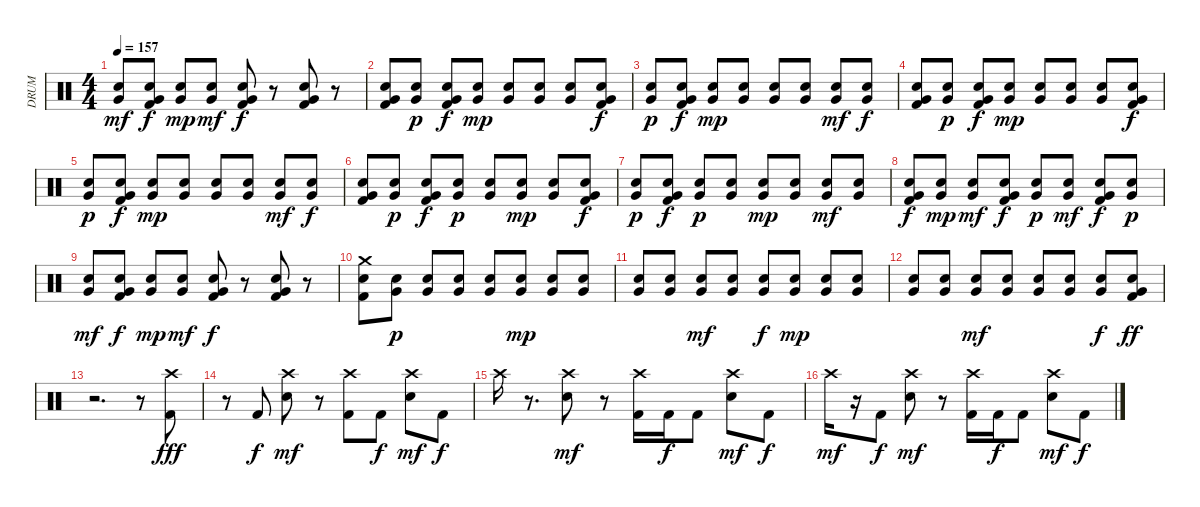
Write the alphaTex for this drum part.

\track ("DRUM" "DRUM") {instrument percussion}
\staff {score}
\articulation defaults
\ts (4 4)
\tempo 157
\clef neutral
\ks c
("Snare (hit) 2" "Very Low Tom (hit)").8{dy mf} ("Kick (hit) 2" "Snare (hit) 2" "Very Low Tom (hit)").8{dy f} ("Snare (hit) 2" "Very Low Tom (hit)").8{dy mp} ("Snare (hit) 2" "Very Low Tom (hit)").8{dy mf} ("Kick (hit) 2" "Snare (hit) 2" "Very Low Tom (hit)").8{dy f} r.8 ("Kick (hit) 2" "Snare (hit) 2" "Very Low Tom (hit)").8 r.8 |
("Snare (hit) 2" "Kick (hit) 2" "Very Low Tom (hit)").8 ("Snare (hit) 2" "Very Low Tom (hit)").8{dy p} ("Kick (hit) 2" "Snare (hit) 2" "Very Low Tom (hit)").8{dy f} ("Snare (hit) 2" "Very Low Tom (hit)").8{dy mp} ("Very Low Tom (hit)" "Snare (hit) 2").8 ("Very Low Tom (hit)" "Snare (hit) 2").8 ("Snare (hit) 2" "Very Low Tom (hit)").8 ("Very Low Tom (hit)" "Kick (hit) 2" "Snare (hit) 2").8{dy f} |
("Snare (hit) 2" "Very Low Tom (hit)").8{dy p} ("Very Low Tom (hit)" "Kick (hit) 2" "Snare (hit) 2").8{dy f} ("Snare (hit) 2" "Very Low Tom (hit)").8{dy mp} ("Very Low Tom (hit)" "Snare (hit) 2").8 ("Snare (hit) 2" "Very Low Tom (hit)").8 ("Very Low Tom (hit)" "Snare (hit) 2").8 ("Snare (hit) 2" "Very Low Tom (hit)").8{dy mf} ("Snare (hit) 2" "Very Low Tom (hit)").8{dy f} |
("Snare (hit) 2" "Kick (hit) 2" "Very Low Tom (hit)").8 ("Snare (hit) 2" "Very Low Tom (hit)").8{dy p} ("Kick (hit) 2" "Snare (hit) 2" "Very Low Tom (hit)").8{dy f} ("Snare (hit) 2" "Very Low Tom (hit)").8{dy mp} ("Very Low Tom (hit)" "Snare (hit) 2").8 ("Very Low Tom (hit)" "Snare (hit) 2").8 ("Snare (hit) 2" "Very Low Tom (hit)").8 ("Very Low Tom (hit)" "Kick (hit) 2" "Snare (hit) 2").8{dy f} |
("Snare (hit) 2" "Very Low Tom (hit)").8{dy p} ("Very Low Tom (hit)" "Kick (hit) 2" "Snare (hit) 2").8{dy f} ("Snare (hit) 2" "Very Low Tom (hit)").8{dy mp} ("Very Low Tom (hit)" "Snare (hit) 2").8 ("Snare (hit) 2" "Very Low Tom (hit)").8 ("Very Low Tom (hit)" "Snare (hit) 2").8 ("Snare (hit) 2" "Very Low Tom (hit)").8{dy mf} ("Snare (hit) 2" "Very Low Tom (hit)").8{dy f} |
("Snare (hit) 2" "Kick (hit) 2" "Very Low Tom (hit)").8 ("Snare (hit) 2" "Very Low Tom (hit)").8{dy p} ("Kick (hit) 2" "Snare (hit) 2" "Very Low Tom (hit)").8{dy f} ("Snare (hit) 2" "Very Low Tom (hit)").8{dy p} ("Very Low Tom (hit)" "Snare (hit) 2").8 ("Very Low Tom (hit)" "Snare (hit) 2").8{dy mp} ("Snare (hit) 2" "Very Low Tom (hit)").8 ("Very Low Tom (hit)" "Kick (hit) 2" "Snare (hit) 2").8{dy f} |
("Snare (hit) 2" "Very Low Tom (hit)").8{dy p} ("Very Low Tom (hit)" "Kick (hit) 2" "Snare (hit) 2").8{dy f} ("Snare (hit) 2" "Very Low Tom (hit)").8{dy p} ("Very Low Tom (hit)" "Snare (hit) 2").8 ("Snare (hit) 2" "Very Low Tom (hit)").8{dy mp} ("Very Low Tom (hit)" "Snare (hit) 2").8 ("Snare (hit) 2" "Very Low Tom (hit)").8{dy mf} ("Snare (hit) 2" "Very Low Tom (hit)").8 |
("Snare (hit) 2" "Kick (hit) 2" "Very Low Tom (hit)").8{dy f} ("Snare (hit) 2" "Very Low Tom (hit)").8{dy mp} ("Snare (hit) 2" "Very Low Tom (hit)").8{dy mf} ("Kick (hit) 2" "Snare (hit) 2" "Very Low Tom (hit)").8{dy f} ("Very Low Tom (hit)" "Snare (hit) 2").8{dy p} ("Snare (hit) 2" "Very Low Tom (hit)").8{dy mf} ("Kick (hit) 2" "Snare (hit) 2" "Very Low Tom (hit)").8{dy f} ("Very Low Tom (hit)" "Snare (hit) 2").8{dy p} |
("Snare (hit) 2" "Very Low Tom (hit)").8{dy mf} ("Kick (hit) 2" "Snare (hit) 2" "Very Low Tom (hit)").8{dy f} ("Snare (hit) 2" "Very Low Tom (hit)").8{dy mp} ("Snare (hit) 2" "Very Low Tom (hit)").8{dy mf} ("Kick (hit) 2" "Snare (hit) 2" "Very Low Tom (hit)").8{dy f} r.8 ("Kick (hit) 2" "Snare (hit) 2" "Very Low Tom (hit)").8 r.8 |
("Crash medium (hit)" "Kick (hit) 2" "Snare (hit) 2").8 ("Snare (hit) 2" "Very Low Tom (hit)").8{dy p} ("Very Low Tom (hit)" "Snare (hit) 2").8 ("Snare (hit) 2" "Very Low Tom (hit)").8 ("Snare (hit) 2" "Very Low Tom (hit)").8 ("Very Low Tom (hit)" "Snare (hit) 2").8{dy mp} ("Snare (hit) 2" "Very Low Tom (hit)").8 ("Snare (hit) 2" "Very Low Tom (hit)").8 |
("Snare (hit) 2" "Very Low Tom (hit)").8 ("Very Low Tom (hit)" "Snare (hit) 2").8 ("Very Low Tom (hit)" "Snare (hit) 2").8{dy mf} ("Snare (hit) 2" "Very Low Tom (hit)").8 ("Snare (hit) 2" "Very Low Tom (hit)").8{dy f} ("Snare (hit) 2" "Very Low Tom (hit)").8{dy mp} ("Snare (hit) 2" "Very Low Tom (hit)").8 ("Snare (hit) 2" "Very Low Tom (hit)").8 |
("Very Low Tom (hit)" "Snare (hit) 2").8 ("Very Low Tom (hit)" "Snare (hit) 2").8 ("Snare (hit) 2" "Very Low Tom (hit)").8{dy mf} ("Very Low Tom (hit)" "Snare (hit) 2").8 ("Snare (hit) 2" "Very Low Tom (hit)").8 ("Very Low Tom (hit)" "Snare (hit) 2").8 ("Snare (hit) 2" "Very Low Tom (hit)").8{dy f} ("Kick (hit) 2" "Snare (hit) 2" "Very Low Tom (hit)").8{dy ff} |
r.2{d} r.8 ("Crash high (hit)" "Kick (hit) 2").8{dy fff} |
r.8 "Kick (hit) 2".8{dy f} ("Crash high (hit)" "Electric Snare (hit)").8{dy mf} r.8 ("Crash high (hit)" "Kick (hit) 2").8 "Kick (hit) 2".8{dy f} ("Crash high (hit)" "Electric Snare (hit)").8{dy mf} "Kick (hit) 2".8{dy f} |
"Crash high (hit)".16 r.8{d} ("Crash high (hit)" "Electric Snare (hit)").8{dy mf} r.8 ("Crash high (hit)" "Kick (hit) 2").16 "Kick (hit) 2".16{dy f} "Kick (hit) 2".8 ("Crash high (hit)" "Electric Snare (hit)").8{dy mf} "Kick (hit) 2".8{dy f} |
"Crash high (hit)".16{dy mf} r.16 "Kick (hit) 2".8{dy f} ("Crash high (hit)" "Electric Snare (hit)").8{dy mf} r.8 ("Crash high (hit)" "Kick (hit) 2").16 "Kick (hit) 2".16{dy f} "Kick (hit) 2".8 ("Crash high (hit)" "Electric Snare (hit)").8{dy mf} "Kick (hit) 2".8{dy f}
